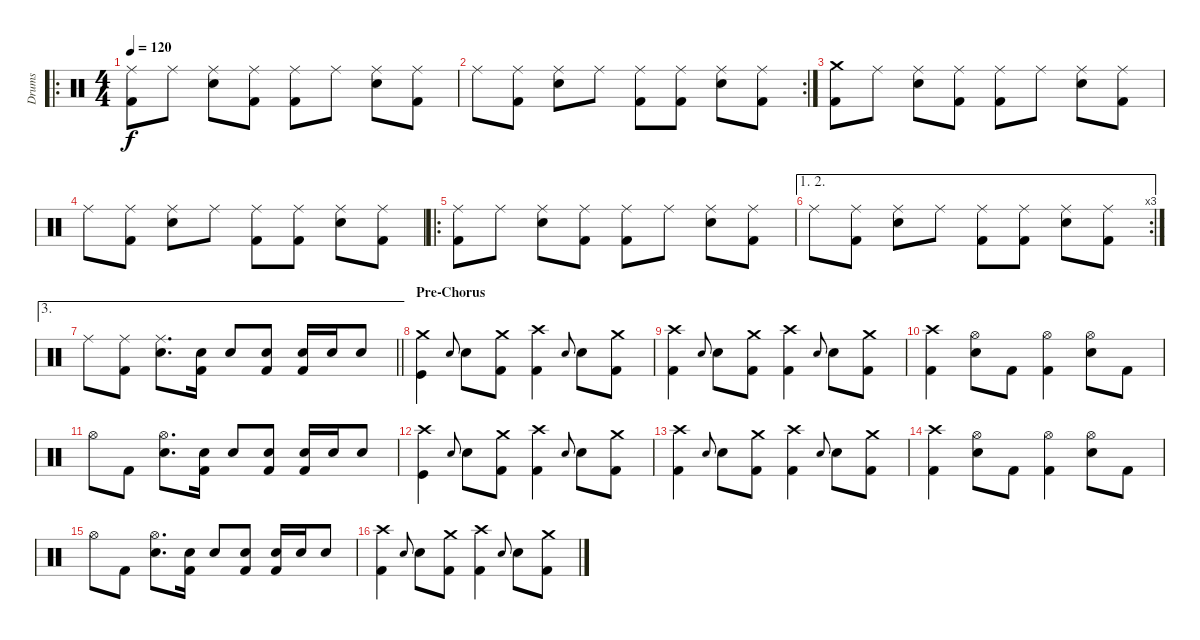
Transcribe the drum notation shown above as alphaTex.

\track ("Drums" "Drums") {instrument percussion}
\staff {score}
\articulation defaults
\ro
\ts (4 4)
\tempo 120
\clef neutral
\ks c
("Ride (middle)" "Kick (hit) 2").8{dy f} "Ride (middle)".8 ("Ride (middle)" "Snare (hit) 2").8 ("Ride (middle)" "Kick (hit) 2").8 ("Ride (middle)" "Kick (hit) 2").8 "Ride (middle)".8 ("Ride (middle)" "Snare (hit) 2").8 ("Ride (middle)" "Kick (hit) 2").8 |
\rc 2 "Ride (middle)".8
("Ride (middle)" "Kick (hit) 2").8 ("Ride (middle)" "Snare (hit) 2").8 "Ride (middle)".8 ("Ride (middle)" "Kick (hit) 2").8 ("Ride (middle)" "Kick (hit) 2").8 ("Ride (middle)" "Snare (hit) 2").8 ("Ride (middle)" "Kick (hit) 2").8 |
("Crash medium (hit)" "Kick (hit) 2").8 "Ride (middle)".8 ("Ride (middle)" "Snare (hit) 2").8 ("Ride (middle)" "Kick (hit) 2").8 ("Ride (middle)" "Kick (hit) 2").8 "Ride (middle)".8 ("Ride (middle)" "Snare (hit) 2").8 ("Ride (middle)" "Kick (hit) 2").8 |
"Ride (middle)".8 ("Ride (middle)" "Kick (hit) 2").8 ("Ride (middle)" "Snare (hit) 2").8 "Ride (middle)".8 ("Ride (middle)" "Kick (hit) 2").8 ("Ride (middle)" "Kick (hit) 2").8 ("Ride (middle)" "Snare (hit) 2").8 ("Ride (middle)" "Kick (hit) 2").8 |
\ro
("Ride (middle)" "Kick (hit) 2").8 "Ride (middle)".8 ("Ride (middle)" "Snare (hit) 2").8 ("Ride (middle)" "Kick (hit) 2").8 ("Ride (middle)" "Kick (hit) 2").8 "Ride (middle)".8 ("Ride (middle)" "Snare (hit) 2").8 ("Ride (middle)" "Kick (hit) 2").8 |
\ae (1 2)
\rc 3 "Ride (middle)".8
("Ride (middle)" "Kick (hit) 2").8 ("Ride (middle)" "Snare (hit) 2").8 "Ride (middle)".8 ("Ride (middle)" "Kick (hit) 2").8 ("Ride (middle)" "Kick (hit) 2").8 ("Ride (middle)" "Snare (hit) 2").8 ("Ride (middle)" "Kick (hit) 2").8 |
\ae 3
\barLineRight lightlight "Ride (middle)".8
("Ride (middle)" "Kick (hit) 2").8 ("Ride (middle)" "Snare (hit) 2").8{d} ("Snare (hit) 2" "Kick (hit) 2").16 "Snare (hit) 2".8 ("Snare (hit) 2" "Kick (hit) 2").8 ("Snare (hit) 2" "Kick (hit) 2").16 "Snare (hit) 2".16 "Snare (hit) 2".8 |
\section ("" "Pre-Chorus")
("Crash medium (hit)" "Kick (hit)").4 "Snare (hit) 2".8{gr onbeat} "Snare (hit) 2".8 ("Crash medium (hit)" "Kick (hit) 2").8 ("Crash high (hit)" "Kick (hit) 2").4 "Snare (hit) 2".8{gr onbeat} "Snare (hit) 2".8 ("Crash medium (hit)" "Kick (hit) 2").8 |
("Crash high (hit)" "Kick (hit) 2").4 "Snare (hit) 2".8{gr onbeat} "Snare (hit) 2".8 ("Crash medium (hit)" "Kick (hit) 2").8 ("Crash high (hit)" "Kick (hit) 2").4 "Snare (hit) 2".8{gr onbeat} "Snare (hit) 2".8 ("Crash medium (hit)" "Kick (hit) 2").8 |
("Crash high (hit)" "Kick (hit) 2").4 ("Hi-Hat (open)" "Snare (hit) 2").8 "Kick (hit) 2".8 ("Hi-Hat (open)" "Kick (hit) 2").4 ("Hi-Hat (open)" "Snare (hit) 2").8 "Kick (hit) 2".8 |
"Hi-Hat (open)".8 "Kick (hit) 2".8 ("Hi-Hat (open)" "Snare (hit) 2").8{d} ("Snare (hit) 2" "Kick (hit) 2").16 "Snare (hit) 2".8 ("Snare (hit) 2" "Kick (hit) 2").8 ("Snare (hit) 2" "Kick (hit) 2").16 "Snare (hit) 2".16 "Snare (hit) 2".8 |
("Crash high (hit)" "Kick (hit)").4 "Snare (hit) 2".8{gr onbeat} "Snare (hit) 2".8 ("Crash medium (hit)" "Kick (hit) 2").8 ("Crash high (hit)" "Kick (hit) 2").4 "Snare (hit) 2".8{gr onbeat} "Snare (hit) 2".8 ("Crash medium (hit)" "Kick (hit) 2").8 |
("Crash high (hit)" "Kick (hit) 2").4 "Snare (hit) 2".8{gr onbeat} "Snare (hit) 2".8 ("Crash medium (hit)" "Kick (hit) 2").8 ("Crash high (hit)" "Kick (hit) 2").4 "Snare (hit) 2".8{gr onbeat} "Snare (hit) 2".8 ("Crash medium (hit)" "Kick (hit) 2").8 |
("Crash high (hit)" "Kick (hit) 2").4 ("Hi-Hat (open)" "Snare (hit) 2").8 "Kick (hit) 2".8 ("Hi-Hat (open)" "Kick (hit) 2").4 ("Hi-Hat (open)" "Snare (hit) 2").8 "Kick (hit) 2".8 |
"Hi-Hat (open)".8 "Kick (hit) 2".8 ("Hi-Hat (open)" "Snare (hit) 2").8{d} ("Snare (hit) 2" "Kick (hit) 2").16 "Snare (hit) 2".8 ("Snare (hit) 2" "Kick (hit) 2").8 ("Snare (hit) 2" "Kick (hit) 2").16 "Snare (hit) 2".16 "Snare (hit) 2".8 |
("Crash high (hit)" "Kick (hit) 2").4 "Snare (hit) 2".8{gr onbeat} "Snare (hit) 2".8 ("Crash medium (hit)" "Kick (hit) 2").8 ("Crash high (hit)" "Kick (hit) 2").4 "Snare (hit) 2".8{gr onbeat} "Snare (hit) 2".8 ("Crash medium (hit)" "Kick (hit) 2").8
